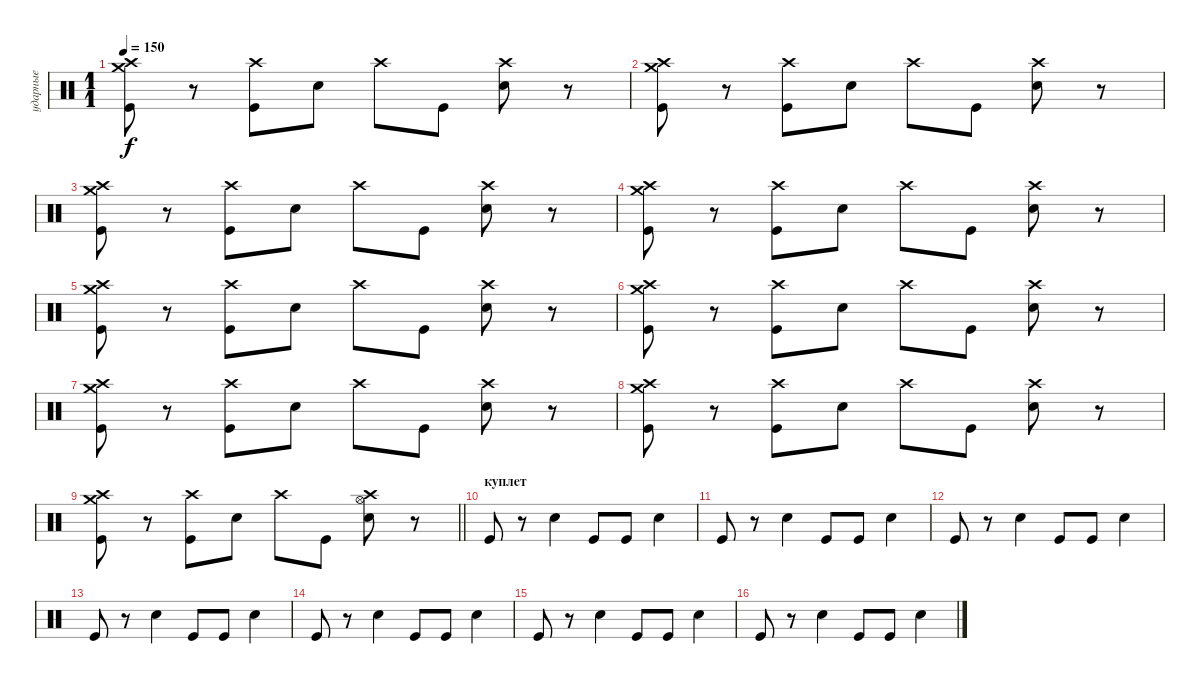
\track ("ударные" "ударные") {instrument percussion}
\staff {score}
\articulation defaults
\ts (1 1)
\tempo 150
\clef neutral
\ks c
("Crash high (hit)" "Crash medium (hit)" "Kick (hit)").8{dy f} r.8 ("Crash high (hit)" "Kick (hit)").8 "Snare (hit) 2".8 "Crash high (hit)".8 "Kick (hit)".8 ("Crash high (hit)" "Snare (hit) 2").8 r.8 |
("Crash high (hit)" "Crash medium (hit)" "Kick (hit)").8 r.8 ("Crash high (hit)" "Kick (hit)").8 "Snare (hit) 2".8 "Crash high (hit)".8 "Kick (hit)".8 ("Crash high (hit)" "Snare (hit) 2").8 r.8 |
("Crash high (hit)" "Crash medium (hit)" "Kick (hit)").8 r.8 ("Crash high (hit)" "Kick (hit)").8 "Snare (hit) 2".8 "Crash high (hit)".8 "Kick (hit)".8 ("Crash high (hit)" "Snare (hit) 2").8 r.8 |
("Crash high (hit)" "Crash medium (hit)" "Kick (hit)").8 r.8 ("Crash high (hit)" "Kick (hit)").8 "Snare (hit) 2".8 "Crash high (hit)".8 "Kick (hit)".8 ("Crash high (hit)" "Snare (hit) 2").8 r.8 |
("Crash high (hit)" "Crash medium (hit)" "Kick (hit)").8 r.8 ("Crash high (hit)" "Kick (hit)").8 "Snare (hit) 2".8 "Crash high (hit)".8 "Kick (hit)".8 ("Crash high (hit)" "Snare (hit) 2").8 r.8 |
("Crash high (hit)" "Crash medium (hit)" "Kick (hit)").8 r.8 ("Crash high (hit)" "Kick (hit)").8 "Snare (hit) 2".8 "Crash high (hit)".8 "Kick (hit)".8 ("Crash high (hit)" "Snare (hit) 2").8 r.8 |
("Crash high (hit)" "Crash medium (hit)" "Kick (hit)").8 r.8 ("Crash high (hit)" "Kick (hit)").8 "Snare (hit) 2".8 "Crash high (hit)".8 "Kick (hit)".8 ("Crash high (hit)" "Snare (hit) 2").8 r.8 |
("Crash high (hit)" "Crash medium (hit)" "Kick (hit)").8 r.8 ("Crash high (hit)" "Kick (hit)").8 "Snare (hit) 2".8 "Crash high (hit)".8 "Kick (hit)".8 ("Crash high (hit)" "Snare (hit) 2").8 r.8 |
\barLineRight lightlight
("Crash high (hit)" "Crash medium (hit)" "Kick (hit)").8 r.8 ("Crash high (hit)" "Kick (hit)").8 "Snare (hit) 2".8 "Crash high (hit)".8 "Kick (hit)".8 ("Crash high (hit)" "Hi-Hat (open)" "Snare (hit) 2").8 r.8 |
\section ("" "куплет")
"Kick (hit)".8 r.8 "Snare (hit) 2".4 "Kick (hit)".8 "Kick (hit)".8 "Snare (hit) 2".4 |
"Kick (hit)".8 r.8 "Snare (hit) 2".4 "Kick (hit)".8 "Kick (hit)".8 "Snare (hit) 2".4 |
"Kick (hit)".8 r.8 "Snare (hit) 2".4 "Kick (hit)".8 "Kick (hit)".8 "Snare (hit) 2".4 |
"Kick (hit)".8 r.8 "Snare (hit) 2".4 "Kick (hit)".8 "Kick (hit)".8 "Snare (hit) 2".4 |
"Kick (hit)".8 r.8 "Snare (hit) 2".4 "Kick (hit)".8 "Kick (hit)".8 "Snare (hit) 2".4 |
"Kick (hit)".8 r.8 "Snare (hit) 2".4 "Kick (hit)".8 "Kick (hit)".8 "Snare (hit) 2".4 |
"Kick (hit)".8 r.8 "Snare (hit) 2".4 "Kick (hit)".8 "Kick (hit)".8 "Snare (hit) 2".4
